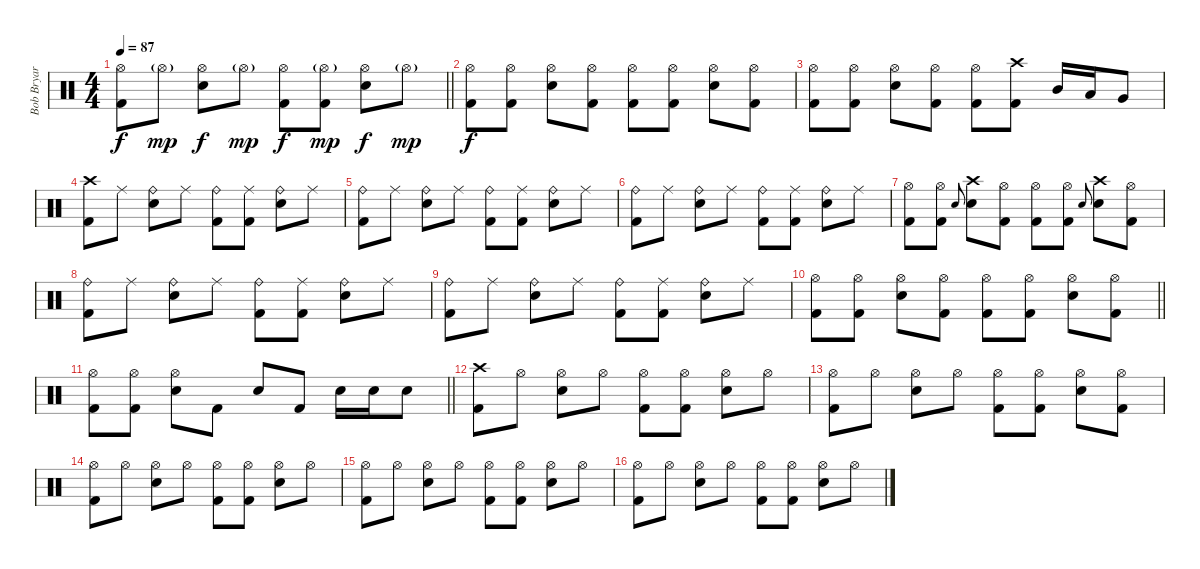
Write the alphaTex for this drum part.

\track ("Bob Bryar [Drums]" "Bob Bryar ") {instrument percussion}
\staff {score}
\articulation defaults
\ts (4 4)
\tempo 87
\clef neutral
\barLineRight lightlight
\ks c
("Hi-Hat (open)" "Kick (hit) 2").8{dy f} "Hi-Hat (open)"{g}.8{dy mp} ("Hi-Hat (open)" "Electric Snare (hit)").8{dy f} "Hi-Hat (open)"{g}.8{dy mp} ("Hi-Hat (open)" "Kick (hit) 2").8{dy f} ("Hi-Hat (open)"{g} "Kick (hit) 2").8{dy mp} ("Hi-Hat (open)" "Electric Snare (hit)").8{dy f} "Hi-Hat (open)"{g}.8{dy mp} |
("Hi-Hat (open)" "Kick (hit) 2").8{dy f} ("Hi-Hat (open)" "Kick (hit) 2").8 ("Hi-Hat (open)" "Electric Snare (hit)").8 ("Hi-Hat (open)" "Kick (hit) 2").8 ("Hi-Hat (open)" "Kick (hit) 2").8 ("Hi-Hat (open)" "Kick (hit) 2").8 ("Hi-Hat (open)" "Electric Snare (hit)").8 ("Hi-Hat (open)" "Kick (hit) 2").8 |
("Hi-Hat (open)" "Kick (hit) 2").8 ("Hi-Hat (open)" "Kick (hit) 2").8 ("Hi-Hat (open)" "Electric Snare (hit)").8 ("Hi-Hat (open)" "Kick (hit) 2").8 ("Hi-Hat (open)" "Kick (hit) 2").8 ("Crash high (hit)" "Kick (hit) 2").8 "Mid Tom (hit)".16 "Low Tom (hit)".16 "Very Low Tom (hit)".8 |
("Crash high (hit)" "Kick (hit) 2").8 "Ride (middle)".8 ("Ride (bell)" "Electric Snare (hit)").8 "Ride (middle)".8 ("Ride (bell)" "Kick (hit) 2").8 ("Ride (middle)" "Kick (hit) 2").8 ("Ride (bell)" "Electric Snare (hit)").8 "Ride (middle)".8 |
("Ride (bell)" "Kick (hit) 2").8 "Ride (middle)".8 ("Ride (bell)" "Electric Snare (hit)").8 "Ride (middle)".8 ("Ride (bell)" "Kick (hit) 2").8 ("Ride (middle)" "Kick (hit) 2").8 ("Ride (bell)" "Electric Snare (hit)").8 "Ride (middle)".8 |
("Ride (bell)" "Kick (hit) 2").8 "Ride (middle)".8 ("Ride (bell)" "Electric Snare (hit)").8 "Ride (middle)".8 ("Ride (bell)" "Kick (hit) 2").8 ("Ride (middle)" "Kick (hit) 2").8 ("Ride (bell)" "Electric Snare (hit)").8 "Ride (middle)".8 |
("Hi-Hat (open)" "Kick (hit) 2").8 ("Hi-Hat (open)" "Kick (hit) 2").8 "Electric Snare (hit)".8{gr onbeat} ("Crash high (hit)" "Electric Snare (hit)").8 ("Hi-Hat (open)" "Kick (hit) 2").8 ("Hi-Hat (open)" "Kick (hit) 2").8 ("Hi-Hat (open)" "Kick (hit) 2").8 "Electric Snare (hit)".8{gr onbeat} ("Crash high (hit)" "Electric Snare (hit)").8 ("Hi-Hat (open)" "Kick (hit) 2").8 |
("Ride (bell)" "Kick (hit) 2").8 "Ride (middle)".8 ("Ride (bell)" "Electric Snare (hit)").8 "Ride (middle)".8 ("Ride (bell)" "Kick (hit) 2").8 ("Ride (middle)" "Kick (hit) 2").8 ("Ride (bell)" "Electric Snare (hit)").8 "Ride (middle)".8 |
("Ride (bell)" "Kick (hit) 2").8 "Ride (middle)".8 ("Ride (bell)" "Electric Snare (hit)").8 "Ride (middle)".8 ("Ride (bell)" "Kick (hit) 2").8 ("Ride (middle)" "Kick (hit) 2").8 ("Ride (bell)" "Electric Snare (hit)").8 "Ride (middle)".8 |
\barLineRight lightlight
("Hi-Hat (open)" "Kick (hit) 2").8 ("Hi-Hat (open)" "Kick (hit) 2").8 ("Hi-Hat (open)" "Electric Snare (hit)").8 ("Hi-Hat (open)" "Kick (hit) 2").8 ("Hi-Hat (open)" "Kick (hit) 2").8 ("Hi-Hat (open)" "Kick (hit) 2").8 ("Hi-Hat (open)" "Electric Snare (hit)").8 ("Hi-Hat (open)" "Kick (hit) 2").8 |
\barLineRight lightlight
("Hi-Hat (open)" "Kick (hit) 2").8 ("Hi-Hat (open)" "Kick (hit) 2").8 ("Hi-Hat (open)" "Electric Snare (hit)").8 "Kick (hit) 2".8 "Electric Snare (hit)".8 "Kick (hit) 2".8 "Electric Snare (hit)".16 "Electric Snare (hit)".16 "Electric Snare (hit)".8 |
("Crash high (hit)" "Kick (hit) 2").8 "Hi-Hat (open)".8 ("Hi-Hat (open)" "Electric Snare (hit)").8 "Hi-Hat (open)".8 ("Hi-Hat (open)" "Kick (hit) 2").8 ("Hi-Hat (open)" "Kick (hit) 2").8 ("Hi-Hat (open)" "Electric Snare (hit)").8 "Hi-Hat (open)".8 |
("Hi-Hat (open)" "Kick (hit) 2").8 "Hi-Hat (open)".8 ("Hi-Hat (open)" "Electric Snare (hit)").8 "Hi-Hat (open)".8 ("Hi-Hat (open)" "Kick (hit) 2").8 ("Hi-Hat (open)" "Kick (hit) 2").8 ("Hi-Hat (open)" "Electric Snare (hit)").8 ("Hi-Hat (open)" "Kick (hit) 2").8 |
("Hi-Hat (open)" "Kick (hit) 2").8 "Hi-Hat (open)".8 ("Hi-Hat (open)" "Electric Snare (hit)").8 "Hi-Hat (open)".8 ("Hi-Hat (open)" "Kick (hit) 2").8 ("Hi-Hat (open)" "Kick (hit) 2").8 ("Hi-Hat (open)" "Electric Snare (hit)").8 "Hi-Hat (open)".8 |
("Hi-Hat (open)" "Kick (hit) 2").8 "Hi-Hat (open)".8 ("Hi-Hat (open)" "Electric Snare (hit)").8 "Hi-Hat (open)".8 ("Hi-Hat (open)" "Kick (hit) 2").8 ("Hi-Hat (open)" "Kick (hit) 2").8 ("Hi-Hat (open)" "Electric Snare (hit)").8 "Hi-Hat (open)".8 |
("Hi-Hat (open)" "Kick (hit) 2").8 "Hi-Hat (open)".8 ("Hi-Hat (open)" "Electric Snare (hit)").8 "Hi-Hat (open)".8 ("Hi-Hat (open)" "Kick (hit) 2").8 ("Hi-Hat (open)" "Kick (hit) 2").8 ("Hi-Hat (open)" "Electric Snare (hit)").8 "Hi-Hat (open)".8
